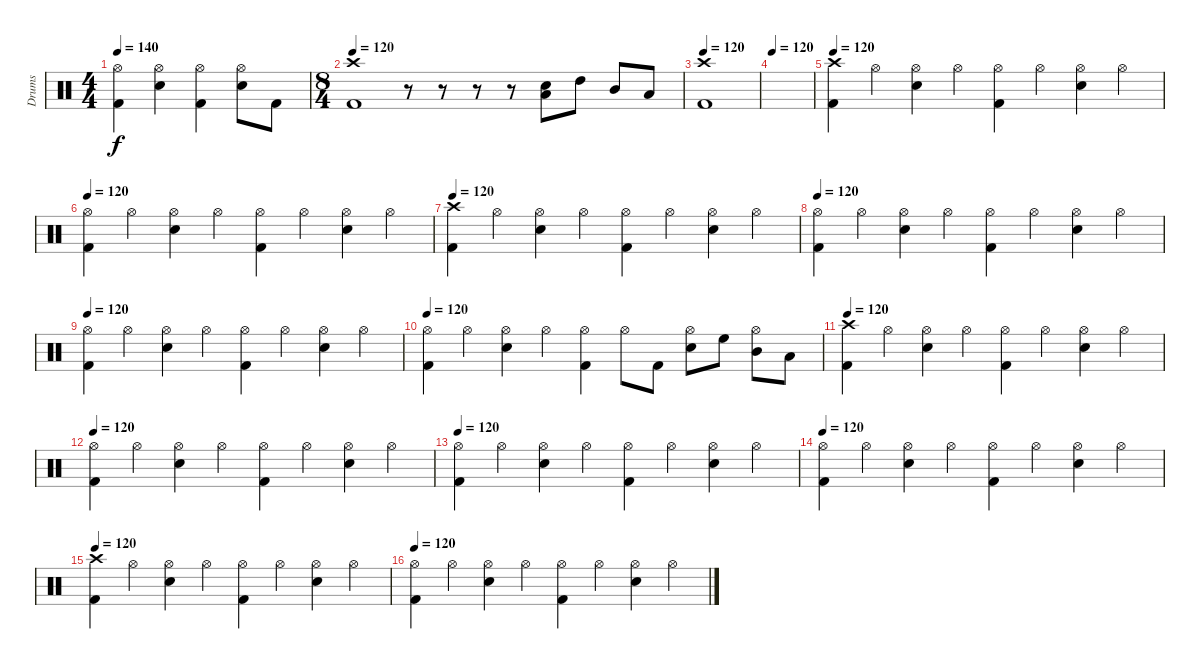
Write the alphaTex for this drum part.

\track ("Drums" "Drums") {instrument percussion}
\staff {score}
\articulation defaults
\ts (4 4)
\tempo 140
\clef neutral
\ks c
("Kick (hit) 2" "Hi-Hat (open)").4{dy f} ("Electric Snare (hit)" "Hi-Hat (open)").4 ("Kick (hit) 2" "Hi-Hat (open)").4 ("Electric Snare (hit)" "Hi-Hat (open)").8 "Kick (hit) 2".8 |
\ts (8 4)
\tempo 120
("Kick (hit) 2" "Crash high (hit)").1 r.8 r.8 r.8 r.8 ("Electric Snare (hit)" "Low Tom (hit)").8 "High Tom (hit)".8 "Mid Tom (hit)".8 "Low Tom (hit)".8 |
\tempo 120
("Kick (hit) 2" "Crash high (hit)").1 |
\tempo 120
|
\tempo 120
("Kick (hit) 2" "Crash high (hit)").4 "Hi-Hat (open)".4 ("Electric Snare (hit)" "Hi-Hat (open)").4 "Hi-Hat (open)".4 ("Kick (hit) 2" "Hi-Hat (open)").4 "Hi-Hat (open)".4 ("Electric Snare (hit)" "Hi-Hat (open)").4 "Hi-Hat (open)".4 |
\tempo 120
("Kick (hit) 2" "Hi-Hat (open)").4 "Hi-Hat (open)".4 ("Electric Snare (hit)" "Hi-Hat (open)").4 "Hi-Hat (open)".4 ("Kick (hit) 2" "Hi-Hat (open)").4 "Hi-Hat (open)".4 ("Electric Snare (hit)" "Hi-Hat (open)").4 "Hi-Hat (open)".4 |
\tempo 120
("Kick (hit) 2" "Crash high (hit)").4 "Hi-Hat (open)".4 ("Electric Snare (hit)" "Hi-Hat (open)").4 "Hi-Hat (open)".4 ("Kick (hit) 2" "Hi-Hat (open)").4 "Hi-Hat (open)".4 ("Electric Snare (hit)" "Hi-Hat (open)").4 "Hi-Hat (open)".4 |
\tempo 120
("Kick (hit) 2" "Hi-Hat (open)").4 "Hi-Hat (open)".4 ("Electric Snare (hit)" "Hi-Hat (open)").4 "Hi-Hat (open)".4 ("Kick (hit) 2" "Hi-Hat (open)").4 "Hi-Hat (open)".4 ("Electric Snare (hit)" "Hi-Hat (open)").4 "Hi-Hat (open)".4 |
\tempo 120
("Kick (hit) 2" "Hi-Hat (open)").4 "Hi-Hat (open)".4 ("Electric Snare (hit)" "Hi-Hat (open)").4 "Hi-Hat (open)".4 ("Kick (hit) 2" "Hi-Hat (open)").4 "Hi-Hat (open)".4 ("Electric Snare (hit)" "Hi-Hat (open)").4 "Hi-Hat (open)".4 |
\tempo 120
("Kick (hit) 2" "Hi-Hat (open)").4 "Hi-Hat (open)".4 ("Electric Snare (hit)" "Hi-Hat (open)").4 "Hi-Hat (open)".4 ("Kick (hit) 2" "Hi-Hat (open)").4 "Hi-Hat (open)".8 "Kick (hit) 2".8 ("Electric Snare (hit)" "Hi-Hat (open)").8 "High Floor Tom (hit)".8 ("Hi-Hat (open)" "Mid Tom (hit)").8 "Low Tom (hit)".8 |
\tempo 120
("Kick (hit) 2" "Crash high (hit)").4 "Hi-Hat (open)".4 ("Electric Snare (hit)" "Hi-Hat (open)").4 "Hi-Hat (open)".4 ("Kick (hit) 2" "Hi-Hat (open)").4 "Hi-Hat (open)".4 ("Electric Snare (hit)" "Hi-Hat (open)").4 "Hi-Hat (open)".4 |
\tempo 120
("Kick (hit) 2" "Hi-Hat (open)").4 "Hi-Hat (open)".4 ("Electric Snare (hit)" "Hi-Hat (open)").4 "Hi-Hat (open)".4 ("Kick (hit) 2" "Hi-Hat (open)").4 "Hi-Hat (open)".4 ("Electric Snare (hit)" "Hi-Hat (open)").4 "Hi-Hat (open)".4 |
\tempo 120
("Kick (hit) 2" "Hi-Hat (open)").4 "Hi-Hat (open)".4 ("Electric Snare (hit)" "Hi-Hat (open)").4 "Hi-Hat (open)".4 ("Kick (hit) 2" "Hi-Hat (open)").4 "Hi-Hat (open)".4 ("Electric Snare (hit)" "Hi-Hat (open)").4 "Hi-Hat (open)".4 |
\tempo 120
("Kick (hit) 2" "Hi-Hat (open)").4 "Hi-Hat (open)".4 ("Electric Snare (hit)" "Hi-Hat (open)").4 "Hi-Hat (open)".4 ("Kick (hit) 2" "Hi-Hat (open)").4 "Hi-Hat (open)".4 ("Electric Snare (hit)" "Hi-Hat (open)").4 "Hi-Hat (open)".4 |
\tempo 120
("Kick (hit) 2" "Crash high (hit)").4 "Hi-Hat (open)".4 ("Electric Snare (hit)" "Hi-Hat (open)").4 "Hi-Hat (open)".4 ("Kick (hit) 2" "Hi-Hat (open)").4 "Hi-Hat (open)".4 ("Electric Snare (hit)" "Hi-Hat (open)").4 "Hi-Hat (open)".4 |
\tempo 120
("Kick (hit) 2" "Hi-Hat (open)").4 "Hi-Hat (open)".4 ("Electric Snare (hit)" "Hi-Hat (open)").4 "Hi-Hat (open)".4 ("Kick (hit) 2" "Hi-Hat (open)").4 "Hi-Hat (open)".4 ("Electric Snare (hit)" "Hi-Hat (open)").4 "Hi-Hat (open)".4
